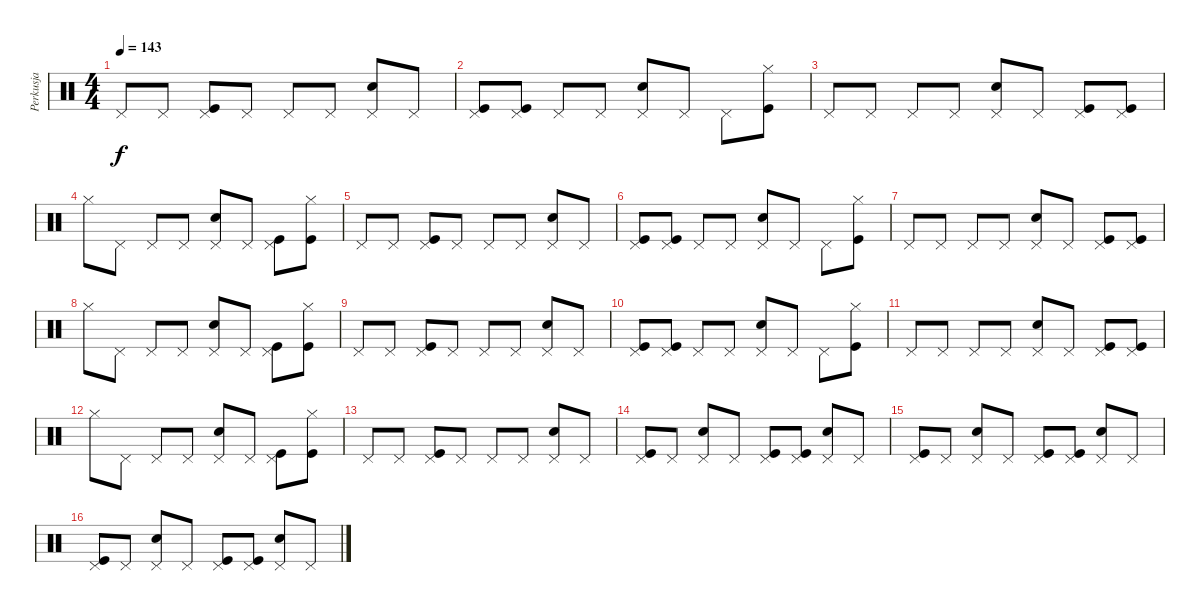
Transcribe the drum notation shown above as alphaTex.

\track ("Perkusja" "Perkusja") {instrument percussion}
\staff {score}
\articulation defaults
\ts (4 4)
\tempo 143
\clef neutral
\ks c "Pedal Hi-Hat (hit)".8{dy f} "Pedal Hi-Hat (hit)".8
("Pedal Hi-Hat (hit)" "Kick (hit)").8 "Pedal Hi-Hat (hit)".8 "Pedal Hi-Hat (hit)".8 "Pedal Hi-Hat (hit)".8 ("Pedal Hi-Hat (hit)" "Snare (hit) 2").8 "Pedal Hi-Hat (hit)".8 |
("Pedal Hi-Hat (hit)" "Kick (hit)").8 ("Pedal Hi-Hat (hit)" "Kick (hit)").8 "Pedal Hi-Hat (hit)".8 "Pedal Hi-Hat (hit)".8 ("Pedal Hi-Hat (hit)" "Snare (hit) 2").8 "Pedal Hi-Hat (hit)".8 "Pedal Hi-Hat (hit)".8 ("Hi-Hat (closed)" "Kick (hit)").8 |
"Pedal Hi-Hat (hit)".8 "Pedal Hi-Hat (hit)".8 "Pedal Hi-Hat (hit)".8 "Pedal Hi-Hat (hit)".8 ("Pedal Hi-Hat (hit)" "Snare (hit) 2").8 "Pedal Hi-Hat (hit)".8 ("Pedal Hi-Hat (hit)" "Kick (hit)").8 ("Pedal Hi-Hat (hit)" "Kick (hit)").8 |
"Hi-Hat (closed)".8 "Pedal Hi-Hat (hit)".8 "Pedal Hi-Hat (hit)".8 "Pedal Hi-Hat (hit)".8 ("Pedal Hi-Hat (hit)" "Snare (hit) 2").8 "Pedal Hi-Hat (hit)".8 ("Pedal Hi-Hat (hit)" "Kick (hit)").8 ("Hi-Hat (closed)" "Kick (hit)").8 |
"Pedal Hi-Hat (hit)".8 "Pedal Hi-Hat (hit)".8 ("Pedal Hi-Hat (hit)" "Kick (hit)").8 "Pedal Hi-Hat (hit)".8 "Pedal Hi-Hat (hit)".8 "Pedal Hi-Hat (hit)".8 ("Pedal Hi-Hat (hit)" "Snare (hit) 2").8 "Pedal Hi-Hat (hit)".8 |
("Pedal Hi-Hat (hit)" "Kick (hit)").8 ("Pedal Hi-Hat (hit)" "Kick (hit)").8 "Pedal Hi-Hat (hit)".8 "Pedal Hi-Hat (hit)".8 ("Pedal Hi-Hat (hit)" "Snare (hit) 2").8 "Pedal Hi-Hat (hit)".8 "Pedal Hi-Hat (hit)".8 ("Hi-Hat (closed)" "Kick (hit)").8 |
"Pedal Hi-Hat (hit)".8 "Pedal Hi-Hat (hit)".8 "Pedal Hi-Hat (hit)".8 "Pedal Hi-Hat (hit)".8 ("Pedal Hi-Hat (hit)" "Snare (hit) 2").8 "Pedal Hi-Hat (hit)".8 ("Pedal Hi-Hat (hit)" "Kick (hit)").8 ("Pedal Hi-Hat (hit)" "Kick (hit)").8 |
"Hi-Hat (closed)".8 "Pedal Hi-Hat (hit)".8 "Pedal Hi-Hat (hit)".8 "Pedal Hi-Hat (hit)".8 ("Pedal Hi-Hat (hit)" "Snare (hit) 2").8 "Pedal Hi-Hat (hit)".8 ("Pedal Hi-Hat (hit)" "Kick (hit)").8 ("Hi-Hat (closed)" "Kick (hit)").8 |
"Pedal Hi-Hat (hit)".8 "Pedal Hi-Hat (hit)".8 ("Pedal Hi-Hat (hit)" "Kick (hit)").8 "Pedal Hi-Hat (hit)".8 "Pedal Hi-Hat (hit)".8 "Pedal Hi-Hat (hit)".8 ("Pedal Hi-Hat (hit)" "Snare (hit) 2").8 "Pedal Hi-Hat (hit)".8 |
("Pedal Hi-Hat (hit)" "Kick (hit)").8 ("Pedal Hi-Hat (hit)" "Kick (hit)").8 "Pedal Hi-Hat (hit)".8 "Pedal Hi-Hat (hit)".8 ("Pedal Hi-Hat (hit)" "Snare (hit) 2").8 "Pedal Hi-Hat (hit)".8 "Pedal Hi-Hat (hit)".8 ("Hi-Hat (closed)" "Kick (hit)").8 |
"Pedal Hi-Hat (hit)".8 "Pedal Hi-Hat (hit)".8 "Pedal Hi-Hat (hit)".8 "Pedal Hi-Hat (hit)".8 ("Pedal Hi-Hat (hit)" "Snare (hit) 2").8 "Pedal Hi-Hat (hit)".8 ("Pedal Hi-Hat (hit)" "Kick (hit)").8 ("Pedal Hi-Hat (hit)" "Kick (hit)").8 |
"Hi-Hat (closed)".8 "Pedal Hi-Hat (hit)".8 "Pedal Hi-Hat (hit)".8 "Pedal Hi-Hat (hit)".8 ("Pedal Hi-Hat (hit)" "Snare (hit) 2").8 "Pedal Hi-Hat (hit)".8 ("Pedal Hi-Hat (hit)" "Kick (hit)").8 ("Hi-Hat (closed)" "Kick (hit)").8 |
"Pedal Hi-Hat (hit)".8 "Pedal Hi-Hat (hit)".8 ("Pedal Hi-Hat (hit)" "Kick (hit)").8 "Pedal Hi-Hat (hit)".8 "Pedal Hi-Hat (hit)".8 "Pedal Hi-Hat (hit)".8 ("Pedal Hi-Hat (hit)" "Snare (hit) 2").8 "Pedal Hi-Hat (hit)".8 |
("Pedal Hi-Hat (hit)" "Kick (hit)").8 "Pedal Hi-Hat (hit)".8 ("Pedal Hi-Hat (hit)" "Snare (hit) 2").8 "Pedal Hi-Hat (hit)".8 ("Pedal Hi-Hat (hit)" "Kick (hit)").8 ("Pedal Hi-Hat (hit)" "Kick (hit)").8 ("Pedal Hi-Hat (hit)" "Snare (hit) 2").8 "Pedal Hi-Hat (hit)".8 |
("Pedal Hi-Hat (hit)" "Kick (hit)").8 "Pedal Hi-Hat (hit)".8 ("Pedal Hi-Hat (hit)" "Snare (hit) 2").8 "Pedal Hi-Hat (hit)".8 ("Pedal Hi-Hat (hit)" "Kick (hit)").8 ("Pedal Hi-Hat (hit)" "Kick (hit)").8 ("Pedal Hi-Hat (hit)" "Snare (hit) 2").8 "Pedal Hi-Hat (hit)".8 |
("Pedal Hi-Hat (hit)" "Kick (hit)").8 "Pedal Hi-Hat (hit)".8 ("Pedal Hi-Hat (hit)" "Snare (hit) 2").8 "Pedal Hi-Hat (hit)".8 ("Pedal Hi-Hat (hit)" "Kick (hit)").8 ("Pedal Hi-Hat (hit)" "Kick (hit)").8 ("Pedal Hi-Hat (hit)" "Snare (hit) 2").8 "Pedal Hi-Hat (hit)".8
